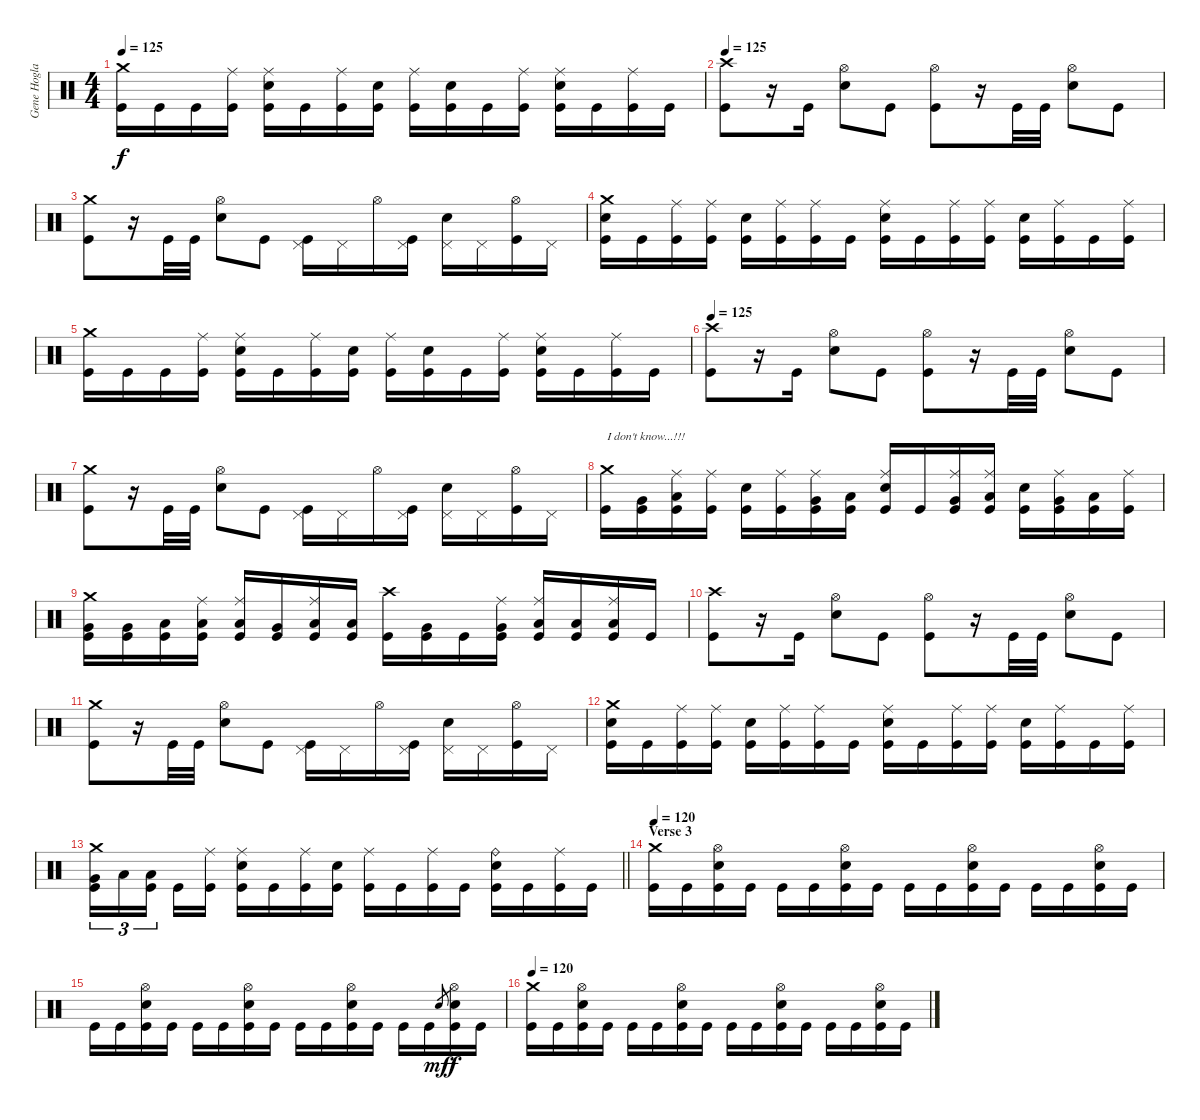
\track ("Gene Hoglan" "Gene Hogla") {instrument percussion}
\staff {score}
\articulation defaults
\ts (4 4)
\tempo 125
\clef neutral
\ks c
("Crash medium (hit)" "Kick (hit)").16{dy f} "Kick (hit)".16 "Kick (hit)".16 ("Ride (middle)" "Kick (hit)").16 ("Ride (middle)" "Electric Snare (hit)" "Kick (hit)").16 "Kick (hit)".16 ("Ride (middle)" "Kick (hit)").16 ("Electric Snare (hit)" "Kick (hit)").16 ("Ride (middle)" "Kick (hit)").16 ("Electric Snare (hit)" "Kick (hit)").16 "Kick (hit)".16 ("Ride (middle)" "Kick (hit)").16 ("Ride (middle)" "Electric Snare (hit)" "Kick (hit)").16 "Kick (hit)".16 ("Ride (middle)" "Kick (hit)").16 "Kick (hit)".16 |
\tempo 125
("Crash high (hit)" "Kick (hit)").8 r.16 "Kick (hit)".16 ("Hi-Hat (open)" "Electric Snare (hit)").8 "Kick (hit)".8 ("Hi-Hat (open)" "Kick (hit)").8 r.16 "Kick (hit)".32 "Kick (hit)".32 ("Hi-Hat (open)" "Electric Snare (hit)").8 "Kick (hit)".8 |
("Crash medium (hit)" "Kick (hit)").8 r.16 "Kick (hit)".32 "Kick (hit)".32 ("Hi-Hat (open)" "Electric Snare (hit)").8 "Kick (hit)".8 ("Pedal Hi-Hat (hit)" "Kick (hit)").16 "Pedal Hi-Hat (hit)".16 "Hi-Hat (open)".16 ("Pedal Hi-Hat (hit)" "Kick (hit)").16 ("Pedal Hi-Hat (hit)" "Electric Snare (hit)").16 "Pedal Hi-Hat (hit)".16 ("Hi-Hat (open)" "Kick (hit)").16 "Pedal Hi-Hat (hit)".16 |
("Crash medium (hit)" "Electric Snare (hit)" "Kick (hit)").16 "Kick (hit)".16 ("Ride (middle)" "Kick (hit)").16 ("Ride (middle)" "Kick (hit)").16 ("Electric Snare (hit)" "Kick (hit)").16 ("Ride (middle)" "Kick (hit)").16 ("Ride (middle)" "Kick (hit)").16 "Kick (hit)".16 ("Ride (middle)" "Electric Snare (hit)" "Kick (hit)").16 "Kick (hit)".16 ("Ride (middle)" "Kick (hit)").16 ("Ride (middle)" "Kick (hit)").16 ("Electric Snare (hit)" "Kick (hit)").16 ("Ride (middle)" "Kick (hit)").16 "Kick (hit)".16 ("Ride (middle)" "Kick (hit)").16 |
("Crash medium (hit)" "Kick (hit)").16 "Kick (hit)".16 "Kick (hit)".16 ("Ride (middle)" "Kick (hit)").16 ("Ride (middle)" "Electric Snare (hit)" "Kick (hit)").16 "Kick (hit)".16 ("Ride (middle)" "Kick (hit)").16 ("Electric Snare (hit)" "Kick (hit)").16 ("Ride (middle)" "Kick (hit)").16 ("Electric Snare (hit)" "Kick (hit)").16 "Kick (hit)".16 ("Ride (middle)" "Kick (hit)").16 ("Ride (middle)" "Electric Snare (hit)" "Kick (hit)").16 "Kick (hit)".16 ("Ride (middle)" "Kick (hit)").16 "Kick (hit)".16 |
\tempo 125
("Crash high (hit)" "Kick (hit)").8 r.16 "Kick (hit)".16 ("Hi-Hat (open)" "Electric Snare (hit)").8 "Kick (hit)".8 ("Hi-Hat (open)" "Kick (hit)").8 r.16 "Kick (hit)".32 "Kick (hit)".32 ("Hi-Hat (open)" "Electric Snare (hit)").8 "Kick (hit)".8 |
("Crash medium (hit)" "Kick (hit)").8 r.16 "Kick (hit)".32 "Kick (hit)".32 ("Hi-Hat (open)" "Electric Snare (hit)").8 "Kick (hit)".8 ("Pedal Hi-Hat (hit)" "Kick (hit)").16 "Pedal Hi-Hat (hit)".16 "Hi-Hat (open)".16 ("Pedal Hi-Hat (hit)" "Kick (hit)").16 ("Pedal Hi-Hat (hit)" "Electric Snare (hit)").16 "Pedal Hi-Hat (hit)".16 ("Hi-Hat (open)" "Kick (hit)").16 "Pedal Hi-Hat (hit)".16 |
("Crash medium (hit)" "Kick (hit)").16{txt "I don't know...!!!"} ("Very Low Tom (hit)" "Kick (hit)").16 ("Ride (middle)" "Low Floor Tom (hit)" "Kick (hit)").16 ("Ride (middle)" "Kick (hit)").16 ("Electric Snare (hit)" "Kick (hit)").16 ("Ride (middle)" "Kick (hit)").16 ("Ride (middle)" "Very Low Tom (hit)" "Kick (hit)").16 ("Low Floor Tom (hit)" "Kick (hit)").16 ("Ride (middle)" "Electric Snare (hit)" "Kick (hit)").16 "Kick (hit)".16 ("Ride (middle)" "Very Low Tom (hit)" "Kick (hit)").16 ("Ride (middle)" "Low Floor Tom (hit)" "Kick (hit)").16 ("Electric Snare (hit)" "Kick (hit)").16 ("Ride (middle)" "Very Low Tom (hit)" "Kick (hit)").16 ("Low Floor Tom (hit)" "Kick (hit)").16 ("Ride (middle)" "Kick (hit)").16 |
("Crash medium (hit)" "Very Low Tom (hit)" "Kick (hit)").16 ("Very Low Tom (hit)" "Kick (hit)").16 ("Low Floor Tom (hit)" "Kick (hit)").16 ("Ride (middle)" "Low Floor Tom (hit)" "Kick (hit)").16 ("Ride (middle)" "Low Tom (hit)" "Kick (hit)").16 ("Very Low Tom (hit)" "Kick (hit)").16 ("Ride (middle)" "Low Floor Tom (hit)" "Kick (hit)").16 ("Low Floor Tom (hit)" "Kick (hit)").16 ("Crash high (hit)" "Kick (hit)").16 ("Very Low Tom (hit)" "Kick (hit)").16 "Kick (hit)".16 ("Ride (middle)" "Very Low Tom (hit)" "Kick (hit)").16 ("Ride (middle)" "Low Floor Tom (hit)" "Kick (hit)").16 ("Low Floor Tom (hit)" "Kick (hit)").16 ("Ride (middle)" "Low Tom (hit)" "Kick (hit)").16 "Kick (hit)".16 |
("Crash high (hit)" "Kick (hit)").8 r.16 "Kick (hit)".16 ("Hi-Hat (open)" "Electric Snare (hit)").8 "Kick (hit)".8 ("Hi-Hat (open)" "Kick (hit)").8 r.16 "Kick (hit)".32 "Kick (hit)".32 ("Hi-Hat (open)" "Electric Snare (hit)").8 "Kick (hit)".8 |
("Crash medium (hit)" "Kick (hit)").8 r.16 "Kick (hit)".32 "Kick (hit)".32 ("Hi-Hat (open)" "Electric Snare (hit)").8 "Kick (hit)".8 ("Pedal Hi-Hat (hit)" "Kick (hit)").16 "Pedal Hi-Hat (hit)".16 "Hi-Hat (open)".16 ("Pedal Hi-Hat (hit)" "Kick (hit)").16 ("Pedal Hi-Hat (hit)" "Electric Snare (hit)").16 "Pedal Hi-Hat (hit)".16 ("Hi-Hat (open)" "Kick (hit)").16 "Pedal Hi-Hat (hit)".16 |
("Crash medium (hit)" "Electric Snare (hit)" "Kick (hit)").16 "Kick (hit)".16 ("Ride (middle)" "Kick (hit)").16 ("Ride (middle)" "Kick (hit)").16 ("Electric Snare (hit)" "Kick (hit)").16 ("Ride (middle)" "Kick (hit)").16 ("Ride (middle)" "Kick (hit)").16 "Kick (hit)".16 ("Ride (middle)" "Electric Snare (hit)" "Kick (hit)").16 "Kick (hit)".16 ("Ride (middle)" "Kick (hit)").16 ("Ride (middle)" "Kick (hit)").16 ("Electric Snare (hit)" "Kick (hit)").16 ("Ride (middle)" "Kick (hit)").16 "Kick (hit)".16 ("Ride (middle)" "Kick (hit)").16 |
\barLineRight lightlight
("Crash medium (hit)" "Very Low Tom (hit)" "Kick (hit)").16{tu (3 2)} "Low Floor Tom (hit)".16{tu (3 2)} ("Low Floor Tom (hit)" "Kick (hit)").16{tu (3 2) beam splitsecondary} "Kick (hit)".16 ("Ride (middle)" "Kick (hit)").16 ("Ride (middle)" "Electric Snare (hit)" "Kick (hit)").16 "Kick (hit)".16 ("Ride (middle)" "Kick (hit)").16 ("Electric Snare (hit)" "Kick (hit)").16 ("Ride (middle)" "Kick (hit)").16 "Kick (hit)".16 ("Ride (middle)" "Kick (hit)").16 "Kick (hit)".16 ("Ride (bell)" "Electric Snare (hit)" "Kick (hit)").16 "Kick (hit)".16 ("Ride (middle)" "Kick (hit)").16 "Kick (hit)".16 |
\section ("" "Verse 3")
\tempo 120
("Crash medium (hit)" "Kick (hit)").16 "Kick (hit)".16 ("Hi-Hat (open)" "Electric Snare (hit)" "Kick (hit)").16 "Kick (hit)".16 "Kick (hit)".16 "Kick (hit)".16 ("Hi-Hat (open)" "Electric Snare (hit)" "Kick (hit)").16 "Kick (hit)".16 "Kick (hit)".16 "Kick (hit)".16 ("Hi-Hat (open)" "Electric Snare (hit)" "Kick (hit)").16 "Kick (hit)".16 "Kick (hit)".16 "Kick (hit)".16 ("Hi-Hat (open)" "Electric Snare (hit)" "Kick (hit)").16 "Kick (hit)".16 |
"Kick (hit)".16 "Kick (hit)".16 ("Hi-Hat (open)" "Electric Snare (hit)" "Kick (hit)").16 "Kick (hit)".16 "Kick (hit)".16 "Kick (hit)".16 ("Hi-Hat (open)" "Electric Snare (hit)" "Kick (hit)").16 "Kick (hit)".16 "Kick (hit)".16 "Kick (hit)".16 ("Hi-Hat (open)" "Electric Snare (hit)" "Kick (hit)").16 "Kick (hit)".16 "Kick (hit)".16 "Kick (hit)".16 "Electric Snare (hit)".8{gr dy mf} ("Hi-Hat (open)" "Electric Snare (hit)" "Kick (hit)").16{dy f} "Kick (hit)".16 |
\tempo 120
("Crash medium (hit)" "Kick (hit)").16 "Kick (hit)".16 ("Hi-Hat (open)" "Electric Snare (hit)" "Kick (hit)").16 "Kick (hit)".16 "Kick (hit)".16 "Kick (hit)".16 ("Hi-Hat (open)" "Electric Snare (hit)" "Kick (hit)").16 "Kick (hit)".16 "Kick (hit)".16 "Kick (hit)".16 ("Hi-Hat (open)" "Electric Snare (hit)" "Kick (hit)").16 "Kick (hit)".16 "Kick (hit)".16 "Kick (hit)".16 ("Hi-Hat (open)" "Electric Snare (hit)" "Kick (hit)").16 "Kick (hit)".16
